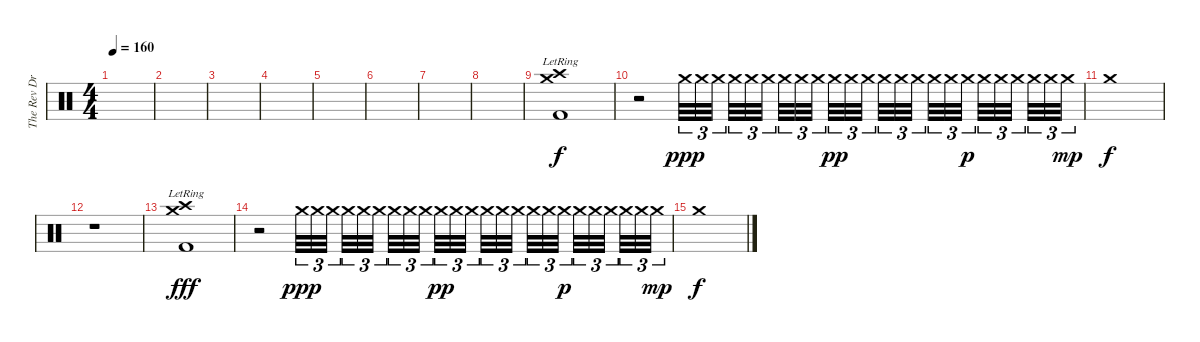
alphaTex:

\track ("The Rev Drum" "The Rev Dr") {instrument percussion}
\staff {score}
\articulation defaults
\ts (4 4)
\tempo 160
\clef neutral
\ks c
|
|
|
|
|
|
|
|
("Kick (hit) 2" "Crash high (hit)"{lr} "Crash medium (hit)"{lr}).1 |
r.2 "Crash medium (hit)".32{tu (3 2) dy ppp} "Crash medium (hit)".32{tu (3 2)} "Crash medium (hit)".32{tu (3 2) beam splitsecondary} "Crash medium (hit)".32{tu (3 2)} "Crash medium (hit)".32{tu (3 2)} "Crash medium (hit)".32{tu (3 2) beam splitsecondary} "Crash medium (hit)".32{tu (3 2)} "Crash medium (hit)".32{tu (3 2)} "Crash medium (hit)".32{tu (3 2) beam splitsecondary} "Crash medium (hit)".32{tu (3 2) dy pp} "Crash medium (hit)".32{tu (3 2)} "Crash medium (hit)".32{tu (3 2)} "Crash medium (hit)".32{tu (3 2)} "Crash medium (hit)".32{tu (3 2)} "Crash medium (hit)".32{tu (3 2) beam splitsecondary} "Crash medium (hit)".32{tu (3 2)} "Crash medium (hit)".32{tu (3 2)} "Crash medium (hit)".32{tu (3 2) dy p beam splitsecondary} "Crash medium (hit)".32{tu (3 2)} "Crash medium (hit)".32{tu (3 2)} "Crash medium (hit)".32{tu (3 2) beam splitsecondary} "Crash medium (hit)".32{tu (3 2)} "Crash medium (hit)".32{tu (3 2)} "Crash medium (hit)".32{tu (3 2) dy mp} |
"Crash medium (hit)".1{dy f} |
r.1 |
("Kick (hit) 2" "Crash high (hit)"{lr} "Crash medium (hit)"{lr}).1{dy fff} |
r.2 "Crash medium (hit)".32{tu (3 2) dy ppp} "Crash medium (hit)".32{tu (3 2)} "Crash medium (hit)".32{tu (3 2) beam splitsecondary} "Crash medium (hit)".32{tu (3 2)} "Crash medium (hit)".32{tu (3 2)} "Crash medium (hit)".32{tu (3 2) beam splitsecondary} "Crash medium (hit)".32{tu (3 2)} "Crash medium (hit)".32{tu (3 2)} "Crash medium (hit)".32{tu (3 2) beam splitsecondary} "Crash medium (hit)".32{tu (3 2) dy pp} "Crash medium (hit)".32{tu (3 2)} "Crash medium (hit)".32{tu (3 2)} "Crash medium (hit)".32{tu (3 2)} "Crash medium (hit)".32{tu (3 2)} "Crash medium (hit)".32{tu (3 2) beam splitsecondary} "Crash medium (hit)".32{tu (3 2)} "Crash medium (hit)".32{tu (3 2)} "Crash medium (hit)".32{tu (3 2) dy p beam splitsecondary} "Crash medium (hit)".32{tu (3 2)} "Crash medium (hit)".32{tu (3 2)} "Crash medium (hit)".32{tu (3 2) beam splitsecondary} "Crash medium (hit)".32{tu (3 2)} "Crash medium (hit)".32{tu (3 2)} "Crash medium (hit)".32{tu (3 2) dy mp} |
"Crash medium (hit)".1{dy f}
